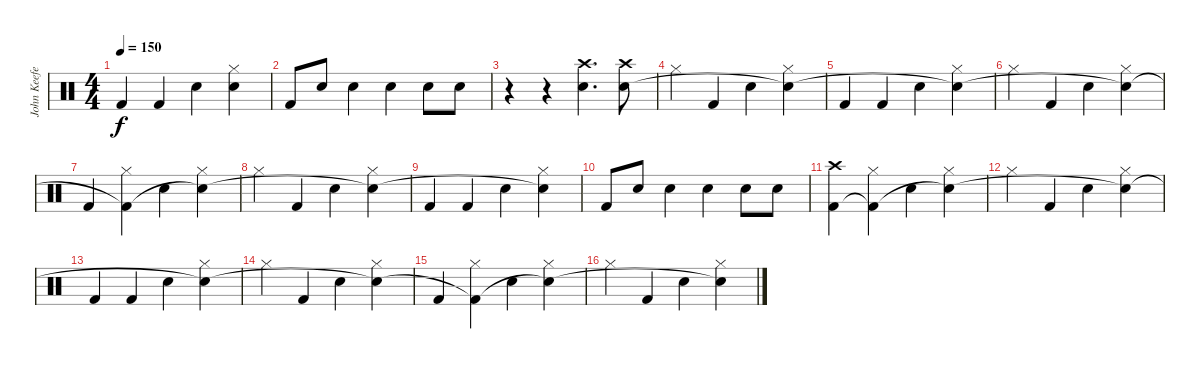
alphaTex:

\track ("John Keefe (Percussion)" "John Keefe") {instrument percussion}
\staff {score}
\articulation defaults
\ts (4 4)
\tempo 150
\clef neutral
\ks c "Kick (hit) 2".4{dy f} "Kick (hit) 2".4 "Snare (hit) 2".4
("Hi-Hat (closed)" "Snare (hit) 2"{t}).4 |
"Kick (hit) 2".8 "Snare (hit) 2".8 "Snare (hit) 2".4 "Snare (hit) 2".4 "Snare (hit) 2".8 "Snare (hit) 2".8 |
r.4 r.4 ("Crash high (hit)" "Snare (hit) 2").4{d} ("Crash high (hit)" "Snare (hit) 2").8 |
"Hi-Hat (closed)".4 "Kick (hit) 2".4 "Snare (hit) 2".4 ("Hi-Hat (closed)" "Snare (hit) 2"{t}).4 |
"Kick (hit) 2".4 "Kick (hit) 2".4 "Snare (hit) 2".4 ("Hi-Hat (closed)" "Snare (hit) 2"{t}).4 |
"Hi-Hat (closed)".4 "Kick (hit) 2".4 "Snare (hit) 2".4 ("Hi-Hat (closed)" "Snare (hit) 2"{t}).4 |
"Kick (hit) 2".4 ("Hi-Hat (closed)" "Kick (hit) 2"{t}).4 "Snare (hit) 2".4 ("Hi-Hat (closed)" "Snare (hit) 2"{t}).4 |
"Hi-Hat (closed)".4 "Kick (hit) 2".4 "Snare (hit) 2".4 ("Hi-Hat (closed)" "Snare (hit) 2"{t}).4 |
"Kick (hit) 2".4 "Kick (hit) 2".4 "Snare (hit) 2".4 ("Hi-Hat (closed)" "Snare (hit) 2"{t}).4 |
"Kick (hit) 2".8 "Snare (hit) 2".8 "Snare (hit) 2".4 "Snare (hit) 2".4 "Snare (hit) 2".8 "Snare (hit) 2".8 |
("Crash high (hit)" "Kick (hit) 2").4 ("Hi-Hat (closed)" "Kick (hit) 2"{t}).4 "Snare (hit) 2".4 ("Hi-Hat (closed)" "Snare (hit) 2"{t}).4 |
"Hi-Hat (closed)".4 "Kick (hit) 2".4 "Snare (hit) 2".4 ("Hi-Hat (closed)" "Snare (hit) 2"{t}).4 |
"Kick (hit) 2".4 "Kick (hit) 2".4 "Snare (hit) 2".4 ("Hi-Hat (closed)" "Snare (hit) 2"{t}).4 |
"Hi-Hat (closed)".4 "Kick (hit) 2".4 "Snare (hit) 2".4 ("Hi-Hat (closed)" "Snare (hit) 2"{t}).4 |
"Kick (hit) 2".4 ("Hi-Hat (closed)" "Kick (hit) 2"{t}).4 "Snare (hit) 2".4 ("Hi-Hat (closed)" "Snare (hit) 2"{t}).4 |
"Hi-Hat (closed)".4 "Kick (hit) 2".4 "Snare (hit) 2".4 ("Hi-Hat (closed)" "Snare (hit) 2"{t}).4
